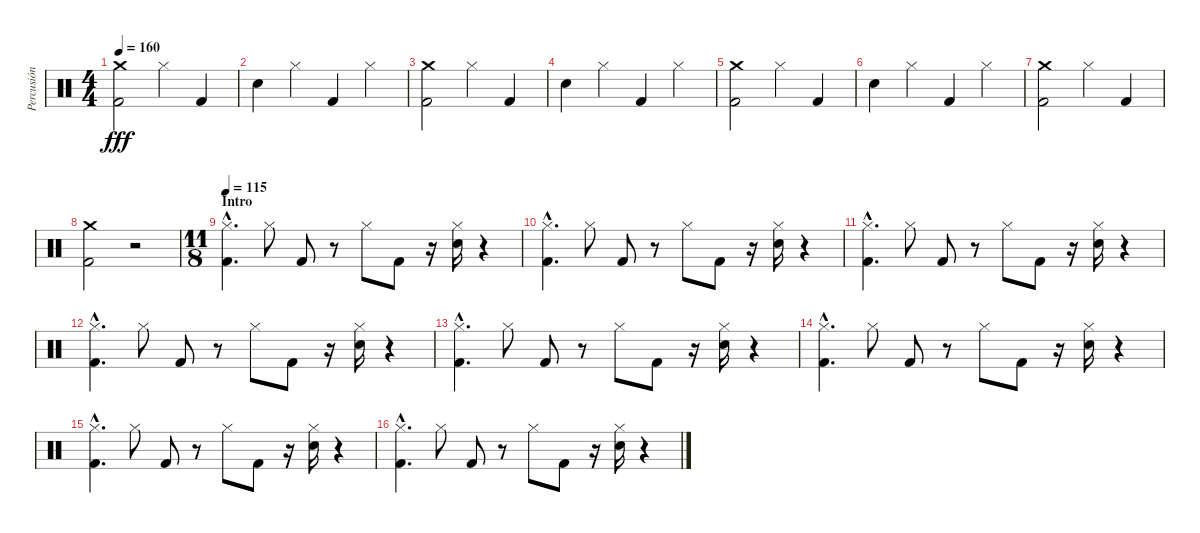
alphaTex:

\track ("Percusión" "Percusión") {instrument percussion}
\staff {score}
\articulation defaults
\ts (4 4)
\tempo 160
\clef neutral
\ks c
("Crash medium (hit)" "Kick (hit) 2").2{dy fff} "Hi-Hat (closed)".4 "Kick (hit) 2".4 |
"Snare (hit) 2".4 "Hi-Hat (closed)".4 "Kick (hit) 2".4 "Hi-Hat (closed)".4 |
("Crash medium (hit)" "Kick (hit) 2").2 "Hi-Hat (closed)".4 "Kick (hit) 2".4 |
"Snare (hit) 2".4 "Hi-Hat (closed)".4 "Kick (hit) 2".4 "Hi-Hat (closed)".4 |
("Crash medium (hit)" "Kick (hit) 2").2 "Hi-Hat (closed)".4 "Kick (hit) 2".4 |
"Snare (hit) 2".4 "Hi-Hat (closed)".4 "Kick (hit) 2".4 "Hi-Hat (closed)".4 |
("Crash medium (hit)" "Kick (hit) 2").2 "Hi-Hat (closed)".4 "Kick (hit) 2".4 |
("Crash medium (hit)" "Kick (hit) 2").2 r.2 |
\ts (11 8)
\section ("" "Intro")
\tempo 115
("Hi-Hat (closed)"{hac} "Kick (hit) 2"{hac}).4{d} "Hi-Hat (closed)".8 "Kick (hit) 2".8 r.8 "Hi-Hat (closed)".8 "Kick (hit) 2".8 r.16 ("Hi-Hat (closed)" "Snare (hit) 2").16 r.4 |
("Hi-Hat (closed)"{hac} "Kick (hit) 2"{hac}).4{d} "Hi-Hat (closed)".8 "Kick (hit) 2".8 r.8 "Hi-Hat (closed)".8 "Kick (hit) 2".8 r.16 ("Hi-Hat (closed)" "Snare (hit) 2").16 r.4 |
("Hi-Hat (closed)"{hac} "Kick (hit) 2"{hac}).4{d} "Hi-Hat (closed)".8 "Kick (hit) 2".8 r.8 "Hi-Hat (closed)".8 "Kick (hit) 2".8 r.16 ("Hi-Hat (closed)" "Snare (hit) 2").16 r.4 |
("Hi-Hat (closed)"{hac} "Kick (hit) 2"{hac}).4{d} "Hi-Hat (closed)".8 "Kick (hit) 2".8 r.8 "Hi-Hat (closed)".8 "Kick (hit) 2".8 r.16 ("Hi-Hat (closed)" "Snare (hit) 2").16 r.4 |
("Hi-Hat (closed)"{hac} "Kick (hit) 2"{hac}).4{d} "Hi-Hat (closed)".8 "Kick (hit) 2".8 r.8 "Hi-Hat (closed)".8 "Kick (hit) 2".8 r.16 ("Hi-Hat (closed)" "Snare (hit) 2").16 r.4 |
("Hi-Hat (closed)"{hac} "Kick (hit) 2"{hac}).4{d} "Hi-Hat (closed)".8 "Kick (hit) 2".8 r.8 "Hi-Hat (closed)".8 "Kick (hit) 2".8 r.16 ("Hi-Hat (closed)" "Snare (hit) 2").16 r.4 |
("Hi-Hat (closed)"{hac} "Kick (hit) 2"{hac}).4{d} "Hi-Hat (closed)".8 "Kick (hit) 2".8 r.8 "Hi-Hat (closed)".8 "Kick (hit) 2".8 r.16 ("Hi-Hat (closed)" "Snare (hit) 2").16 r.4 |
("Hi-Hat (closed)"{hac} "Kick (hit) 2"{hac}).4{d} "Hi-Hat (closed)".8 "Kick (hit) 2".8 r.8 "Hi-Hat (closed)".8 "Kick (hit) 2".8 r.16 ("Hi-Hat (closed)" "Snare (hit) 2").16 r.4
